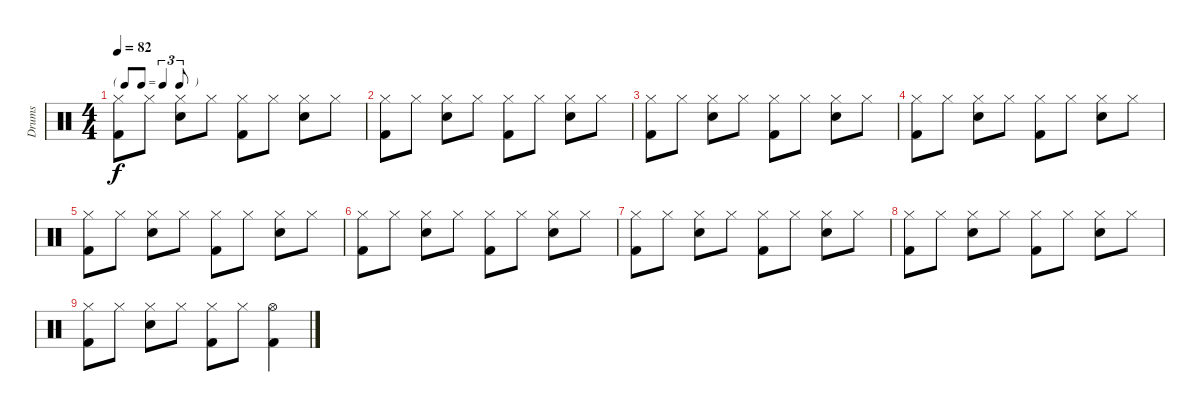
\track ("Drums" "Drums") {instrument percussion}
\staff {score}
\articulation defaults
\ts (4 4)
\tf triplet8th
\tempo 82
\clef neutral
\ks c
("Hi-Hat (closed)" "Kick (hit) 2").8{dy f} "Hi-Hat (closed)".8 ("Hi-Hat (closed)" "Snare (hit) 2").8 "Hi-Hat (closed)".8 ("Hi-Hat (closed)" "Kick (hit) 2").8 "Hi-Hat (closed)".8 ("Hi-Hat (closed)" "Snare (hit) 2").8 "Hi-Hat (closed)".8 |
("Hi-Hat (closed)" "Kick (hit) 2").8 "Hi-Hat (closed)".8 ("Hi-Hat (closed)" "Snare (hit) 2").8 "Hi-Hat (closed)".8 ("Hi-Hat (closed)" "Kick (hit) 2").8 "Hi-Hat (closed)".8 ("Hi-Hat (closed)" "Snare (hit) 2").8 "Hi-Hat (closed)".8 |
("Hi-Hat (closed)" "Kick (hit) 2").8 "Hi-Hat (closed)".8 ("Hi-Hat (closed)" "Snare (hit) 2").8 "Hi-Hat (closed)".8 ("Hi-Hat (closed)" "Kick (hit) 2").8 "Hi-Hat (closed)".8 ("Hi-Hat (closed)" "Snare (hit) 2").8 "Hi-Hat (closed)".8 |
("Hi-Hat (closed)" "Kick (hit) 2").8 "Hi-Hat (closed)".8 ("Hi-Hat (closed)" "Snare (hit) 2").8 "Hi-Hat (closed)".8 ("Hi-Hat (closed)" "Kick (hit) 2").8 "Hi-Hat (closed)".8 ("Hi-Hat (closed)" "Snare (hit) 2").8 "Hi-Hat (closed)".8 |
("Hi-Hat (closed)" "Kick (hit) 2").8 "Hi-Hat (closed)".8 ("Hi-Hat (closed)" "Snare (hit) 2").8 "Hi-Hat (closed)".8 ("Hi-Hat (closed)" "Kick (hit) 2").8 "Hi-Hat (closed)".8 ("Hi-Hat (closed)" "Snare (hit) 2").8 "Hi-Hat (closed)".8 |
("Hi-Hat (closed)" "Kick (hit) 2").8 "Hi-Hat (closed)".8 ("Hi-Hat (closed)" "Snare (hit) 2").8 "Hi-Hat (closed)".8 ("Hi-Hat (closed)" "Kick (hit) 2").8 "Hi-Hat (closed)".8 ("Hi-Hat (closed)" "Snare (hit) 2").8 "Hi-Hat (closed)".8 |
("Hi-Hat (closed)" "Kick (hit) 2").8 "Hi-Hat (closed)".8 ("Hi-Hat (closed)" "Snare (hit) 2").8 "Hi-Hat (closed)".8 ("Hi-Hat (closed)" "Kick (hit) 2").8 "Hi-Hat (closed)".8 ("Hi-Hat (closed)" "Snare (hit) 2").8 "Hi-Hat (closed)".8 |
("Hi-Hat (closed)" "Kick (hit) 2").8 "Hi-Hat (closed)".8 ("Hi-Hat (closed)" "Snare (hit) 2").8 "Hi-Hat (closed)".8 ("Hi-Hat (closed)" "Kick (hit) 2").8 "Hi-Hat (closed)".8 ("Hi-Hat (closed)" "Snare (hit) 2").8 "Hi-Hat (closed)".8 |
("Hi-Hat (closed)" "Kick (hit) 2").8 "Hi-Hat (closed)".8 ("Hi-Hat (closed)" "Snare (hit) 2").8 "Hi-Hat (closed)".8 ("Hi-Hat (closed)" "Kick (hit) 2").8 "Hi-Hat (closed)".8 ("Kick (hit) 2" "Hi-Hat (open)").4
